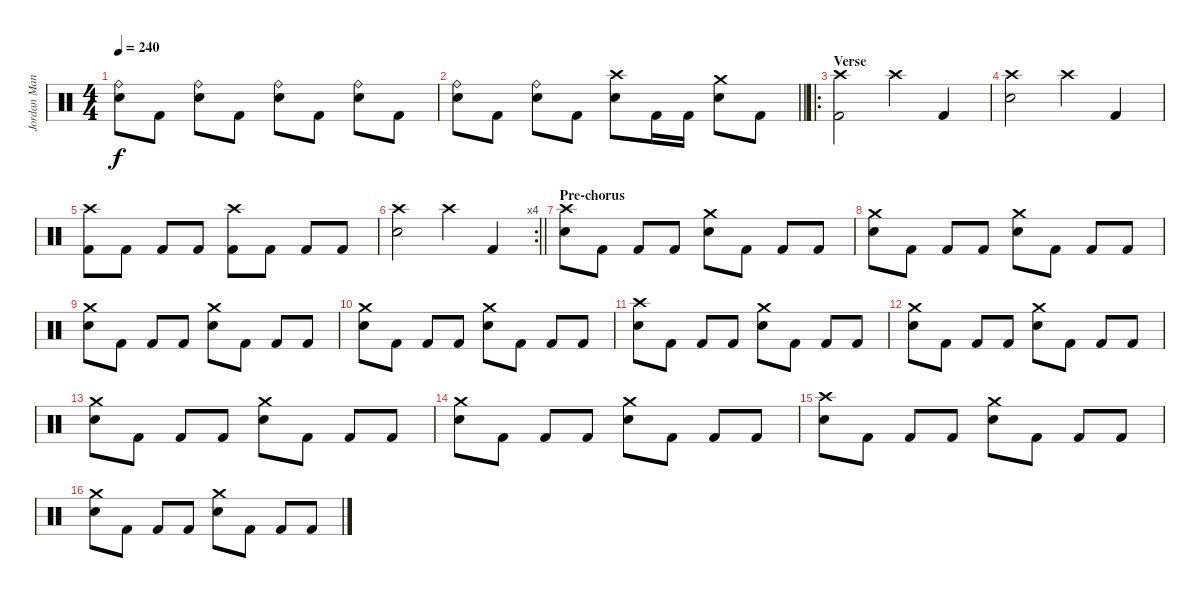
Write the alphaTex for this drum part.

\track ("Jordan Mancino" "Jordan Man") {instrument percussion}
\staff {score}
\articulation defaults
\ts (4 4)
\tempo 240
\clef neutral
\ks c
("Ride (bell)" "Electric Snare (hit)").8{dy f} "Kick (hit) 2".8 ("Ride (bell)" "Electric Snare (hit)").8 "Kick (hit) 2".8 ("Ride (bell)" "Electric Snare (hit)").8 "Kick (hit) 2".8 ("Ride (bell)" "Electric Snare (hit)").8 "Kick (hit) 2".8 |
\barLineRight lightlight
("Ride (bell)" "Electric Snare (hit)").8 "Kick (hit) 2".8 ("Ride (bell)" "Electric Snare (hit)").8 "Kick (hit) 2".8 ("Crash high (hit)" "Electric Snare (hit)").8 "Kick (hit) 2".16 "Kick (hit) 2".16 ("Crash medium (hit)" "Electric Snare (hit)").8 "Kick (hit) 2".8 |
\ro
\section ("" "Verse")
("Crash high (hit)" "Kick (hit) 2").2 "Crash high (hit)".4 "Kick (hit) 2".4 |
("Crash high (hit)" "Electric Snare (hit)").2 "Crash high (hit)".4 "Kick (hit) 2".4 |
("Crash high (hit)" "Kick (hit) 2").8 "Kick (hit) 2".8 "Kick (hit) 2".8 "Kick (hit) 2".8 ("Crash high (hit)" "Kick (hit) 2").8 "Kick (hit) 2".8 "Kick (hit) 2".8 "Kick (hit) 2".8 |
\rc 4
\barLineRight lightlight
("Crash high (hit)" "Electric Snare (hit)").2 "Crash high (hit)".4 "Kick (hit) 2".4 |
\section ("" "Pre-chorus")
("Crash high (hit)" "Electric Snare (hit)").8 "Kick (hit) 2".8 "Kick (hit) 2".8 "Kick (hit) 2".8 ("Crash medium (hit)" "Electric Snare (hit)").8 "Kick (hit) 2".8 "Kick (hit) 2".8 "Kick (hit) 2".8 |
("Crash medium (hit)" "Electric Snare (hit)").8 "Kick (hit) 2".8 "Kick (hit) 2".8 "Kick (hit) 2".8 ("Crash medium (hit)" "Electric Snare (hit)").8 "Kick (hit) 2".8 "Kick (hit) 2".8 "Kick (hit) 2".8 |
("Crash medium (hit)" "Electric Snare (hit)").8 "Kick (hit) 2".8 "Kick (hit) 2".8 "Kick (hit) 2".8 ("Crash medium (hit)" "Electric Snare (hit)").8 "Kick (hit) 2".8 "Kick (hit) 2".8 "Kick (hit) 2".8 |
("Crash medium (hit)" "Electric Snare (hit)").8 "Kick (hit) 2".8 "Kick (hit) 2".8 "Kick (hit) 2".8 ("Crash medium (hit)" "Electric Snare (hit)").8 "Kick (hit) 2".8 "Kick (hit) 2".8 "Kick (hit) 2".8 |
("Crash high (hit)" "Electric Snare (hit)").8 "Kick (hit) 2".8 "Kick (hit) 2".8 "Kick (hit) 2".8 ("Crash medium (hit)" "Electric Snare (hit)").8 "Kick (hit) 2".8 "Kick (hit) 2".8 "Kick (hit) 2".8 |
("Crash medium (hit)" "Electric Snare (hit)").8 "Kick (hit) 2".8 "Kick (hit) 2".8 "Kick (hit) 2".8 ("Crash medium (hit)" "Electric Snare (hit)").8 "Kick (hit) 2".8 "Kick (hit) 2".8 "Kick (hit) 2".8 |
("Crash medium (hit)" "Electric Snare (hit)").8 "Kick (hit) 2".8 "Kick (hit) 2".8 "Kick (hit) 2".8 ("Crash medium (hit)" "Electric Snare (hit)").8 "Kick (hit) 2".8 "Kick (hit) 2".8 "Kick (hit) 2".8 |
("Crash medium (hit)" "Electric Snare (hit)").8 "Kick (hit) 2".8 "Kick (hit) 2".8 "Kick (hit) 2".8 ("Crash medium (hit)" "Electric Snare (hit)").8 "Kick (hit) 2".8 "Kick (hit) 2".8 "Kick (hit) 2".8 |
("Crash high (hit)" "Electric Snare (hit)").8 "Kick (hit) 2".8 "Kick (hit) 2".8 "Kick (hit) 2".8 ("Crash medium (hit)" "Electric Snare (hit)").8 "Kick (hit) 2".8 "Kick (hit) 2".8 "Kick (hit) 2".8 |
("Crash medium (hit)" "Electric Snare (hit)").8 "Kick (hit) 2".8 "Kick (hit) 2".8 "Kick (hit) 2".8 ("Crash medium (hit)" "Electric Snare (hit)").8 "Kick (hit) 2".8 "Kick (hit) 2".8 "Kick (hit) 2".8
